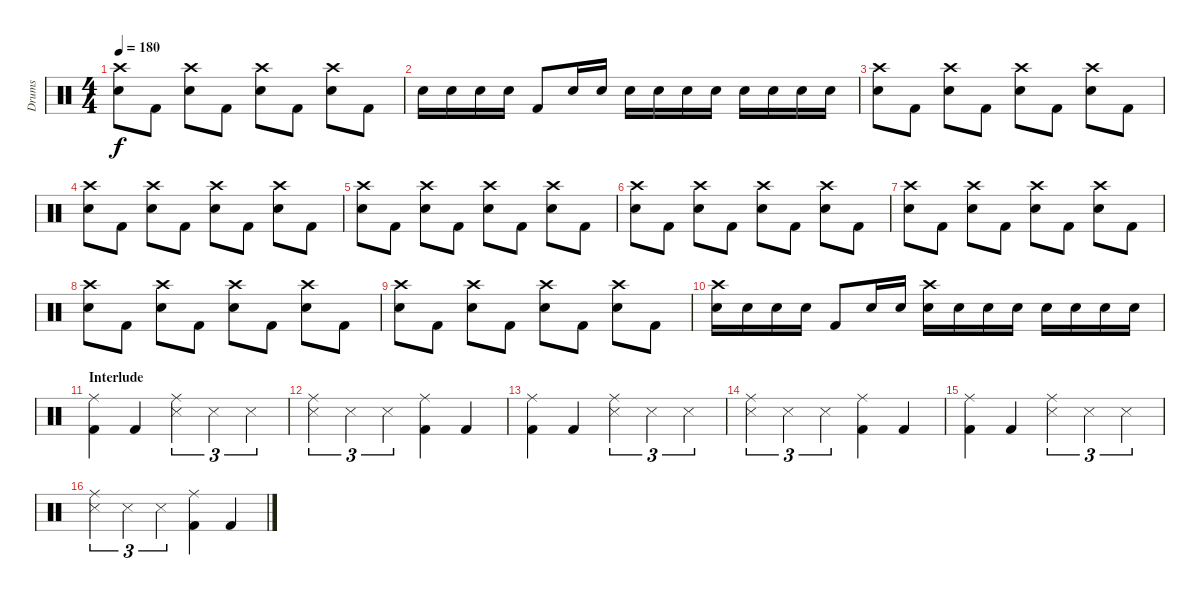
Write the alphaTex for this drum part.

\track ("Drums" "Drums") {instrument percussion}
\staff {score}
\articulation defaults
\ts (4 4)
\tempo 180
\clef neutral
\ks c
("Crash high (hit)" "Snare (hit) 2").8{dy f} "Kick (hit) 2".8 ("Crash high (hit)" "Snare (hit) 2").8 "Kick (hit) 2".8 ("Crash high (hit)" "Snare (hit) 2").8 "Kick (hit) 2".8 ("Crash high (hit)" "Snare (hit) 2").8 "Kick (hit) 2".8 |
"Snare (hit) 2".16 "Snare (hit) 2".16 "Snare (hit) 2".16 "Snare (hit) 2".16 "Kick (hit) 2".8 "Snare (hit) 2".16 "Snare (hit) 2".16 "Snare (hit) 2".16 "Snare (hit) 2".16 "Snare (hit) 2".16 "Snare (hit) 2".16 "Snare (hit) 2".16 "Snare (hit) 2".16 "Snare (hit) 2".16 "Snare (hit) 2".16 |
("Crash high (hit)" "Snare (hit) 2").8 "Kick (hit) 2".8 ("Crash high (hit)" "Snare (hit) 2").8 "Kick (hit) 2".8 ("Crash high (hit)" "Snare (hit) 2").8 "Kick (hit) 2".8 ("Crash high (hit)" "Snare (hit) 2").8 "Kick (hit) 2".8 |
("Crash high (hit)" "Snare (hit) 2").8 "Kick (hit) 2".8 ("Crash high (hit)" "Snare (hit) 2").8 "Kick (hit) 2".8 ("Crash high (hit)" "Snare (hit) 2").8 "Kick (hit) 2".8 ("Crash high (hit)" "Snare (hit) 2").8 "Kick (hit) 2".8 |
("Crash high (hit)" "Snare (hit) 2").8 "Kick (hit) 2".8 ("Crash high (hit)" "Snare (hit) 2").8 "Kick (hit) 2".8 ("Crash high (hit)" "Snare (hit) 2").8 "Kick (hit) 2".8 ("Crash high (hit)" "Snare (hit) 2").8 "Kick (hit) 2".8 |
("Crash high (hit)" "Snare (hit) 2").8 "Kick (hit) 2".8 ("Crash high (hit)" "Snare (hit) 2").8 "Kick (hit) 2".8 ("Crash high (hit)" "Snare (hit) 2").8 "Kick (hit) 2".8 ("Crash high (hit)" "Snare (hit) 2").8 "Kick (hit) 2".8 |
("Crash high (hit)" "Snare (hit) 2").8 "Kick (hit) 2".8 ("Crash high (hit)" "Snare (hit) 2").8 "Kick (hit) 2".8 ("Crash high (hit)" "Snare (hit) 2").8 "Kick (hit) 2".8 ("Crash high (hit)" "Snare (hit) 2").8 "Kick (hit) 2".8 |
("Crash high (hit)" "Snare (hit) 2").8 "Kick (hit) 2".8 ("Crash high (hit)" "Snare (hit) 2").8 "Kick (hit) 2".8 ("Crash high (hit)" "Snare (hit) 2").8 "Kick (hit) 2".8 ("Crash high (hit)" "Snare (hit) 2").8 "Kick (hit) 2".8 |
("Crash high (hit)" "Snare (hit) 2").8 "Kick (hit) 2".8 ("Crash high (hit)" "Snare (hit) 2").8 "Kick (hit) 2".8 ("Crash high (hit)" "Snare (hit) 2").8 "Kick (hit) 2".8 ("Crash high (hit)" "Snare (hit) 2").8 "Kick (hit) 2".8 |
("Crash high (hit)" "Snare (hit) 2").16 "Snare (hit) 2".16 "Snare (hit) 2".16 "Snare (hit) 2".16 "Kick (hit) 2".8 "Snare (hit) 2".16 "Snare (hit) 2".16 ("Crash high (hit)" "Snare (hit) 2").16 "Snare (hit) 2".16 "Snare (hit) 2".16 "Snare (hit) 2".16 "Snare (hit) 2".16 "Snare (hit) 2".16 "Snare (hit) 2".16 "Snare (hit) 2".16 |
\section ("" "Interlude")
("Ride (middle)" "Kick (hit) 2").4 "Kick (hit) 2".4 ("Ride (middle)" "Snare (side stick) 3").4{tu (3 2)} "Snare (side stick) 3".4{tu (3 2)} "Snare (side stick) 3".4{tu (3 2)} |
("Ride (middle)" "Snare (side stick) 3").4{tu (3 2)} "Snare (side stick) 3".4{tu (3 2)} "Snare (side stick) 3".4{tu (3 2)} ("Ride (middle)" "Kick (hit) 2").4 "Kick (hit) 2".4 |
("Ride (middle)" "Kick (hit) 2").4 "Kick (hit) 2".4 ("Ride (middle)" "Snare (side stick) 3").4{tu (3 2)} "Snare (side stick) 3".4{tu (3 2)} "Snare (side stick) 3".4{tu (3 2)} |
("Ride (middle)" "Snare (side stick) 3").4{tu (3 2)} "Snare (side stick) 3".4{tu (3 2)} "Snare (side stick) 3".4{tu (3 2)} ("Ride (middle)" "Kick (hit) 2").4 "Kick (hit) 2".4 |
("Ride (middle)" "Kick (hit) 2").4 "Kick (hit) 2".4 ("Ride (middle)" "Snare (side stick) 3").4{tu (3 2)} "Snare (side stick) 3".4{tu (3 2)} "Snare (side stick) 3".4{tu (3 2)} |
("Ride (middle)" "Snare (side stick) 3").4{tu (3 2)} "Snare (side stick) 3".4{tu (3 2)} "Snare (side stick) 3".4{tu (3 2)} ("Ride (middle)" "Kick (hit) 2").4 "Kick (hit) 2".4
